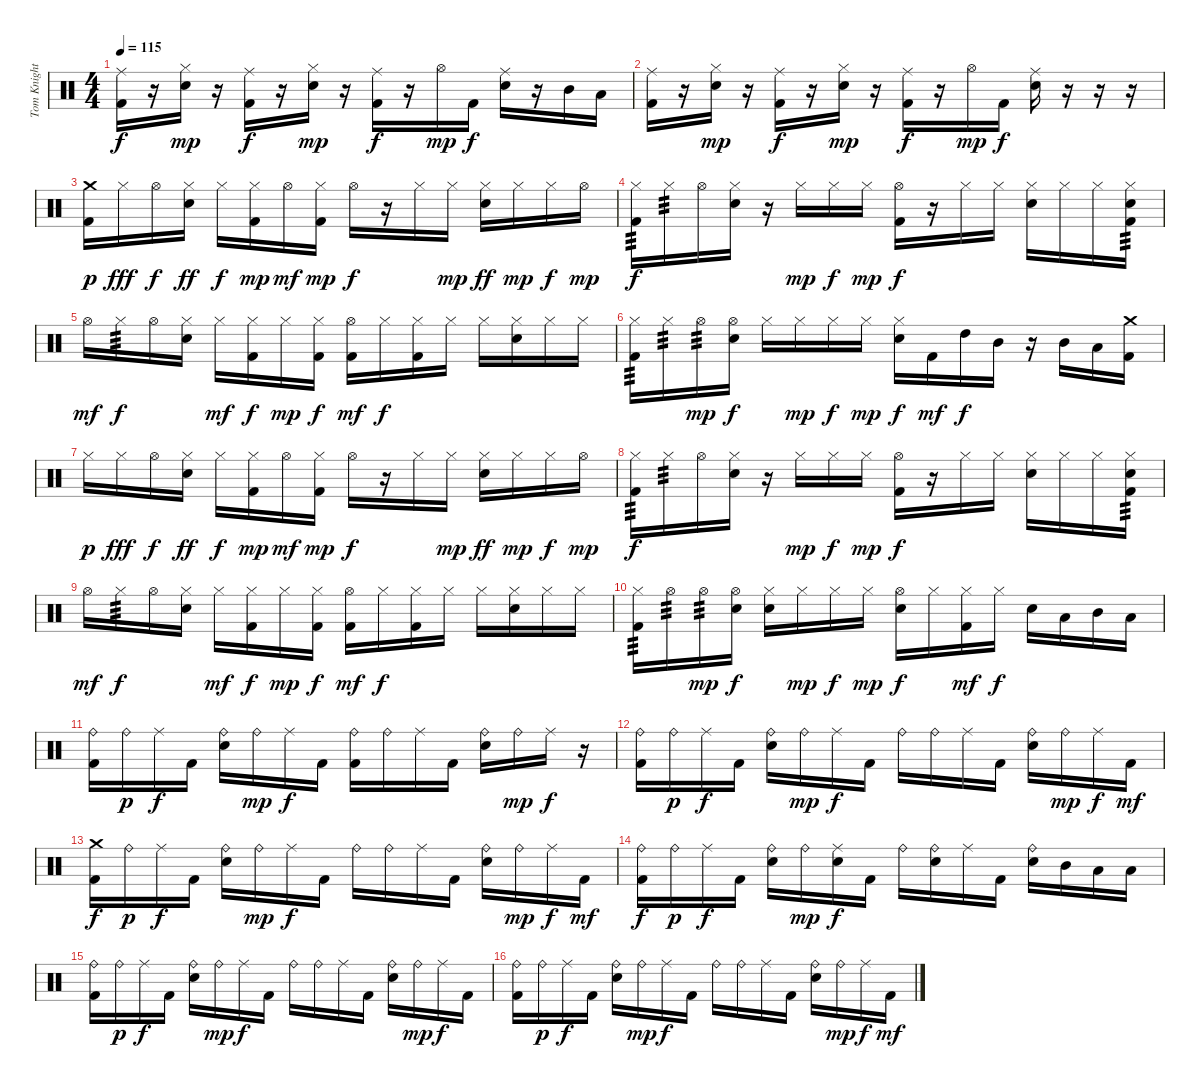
\track ("Tom Knight" "Tom Knight") {instrument percussion}
\staff {score}
\articulation defaults
\ts (4 4)
\section ("" "")
\tempo 115
\clef neutral
\ks c
("Ride (middle)" "Kick (hit) 2").16{dy f} r.16 ("Hi-Hat (closed)" "Electric Snare (hit)").16{dy mp} r.16 ("Ride (middle)" "Kick (hit) 2").16{dy f} r.16 ("Hi-Hat (closed)" "Electric Snare (hit)").16{dy mp} r.16 ("Ride (middle)" "Kick (hit) 2").16{dy f} r.16 "Hi-Hat (open)".16{dy mp} "Kick (hit) 2".16{dy f} ("Ride (middle)" "Electric Snare (hit)").16 r.16 "Mid Tom (hit)".16 "Low Tom (hit)".16 |
("Ride (middle)" "Kick (hit) 2").16 r.16 ("Hi-Hat (closed)" "Electric Snare (hit)").16{dy mp} r.16 ("Ride (middle)" "Kick (hit) 2").16{dy f} r.16 ("Hi-Hat (closed)" "Electric Snare (hit)").16{dy mp} r.16 ("Ride (middle)" "Kick (hit) 2").16{dy f} r.16 "Hi-Hat (open)".16{dy mp} "Kick (hit) 2".16{dy f} ("Ride (middle)" "Electric Snare (hit)").16 r.16 r.16 r.16 |
\section ("" "")
("Crash medium (hit)" "Kick (hit) 2").16{dy p} "Hi-Hat (closed)".16{dy fff} "Hi-Hat (open)".16{dy f} ("Hi-Hat (closed)" "Electric Snare (hit)").16{dy ff} "Hi-Hat (closed)".16{dy f} ("Hi-Hat (closed)" "Kick (hit) 2").16{dy mp} "Hi-Hat (open)".16{dy mf} ("Hi-Hat (closed)" "Kick (hit) 2").16{dy mp} "Hi-Hat (open)".16{dy f} r.16 "Hi-Hat (closed)".16 "Hi-Hat (closed)".16{dy mp} ("Hi-Hat (closed)" "Electric Snare (hit)").16{dy ff} "Hi-Hat (closed)".16{dy mp} "Hi-Hat (closed)".16{dy f} "Hi-Hat (open)".16{dy mp} |
("Hi-Hat (closed)" "Kick (hit) 2").16{tp 3 dy f} "Hi-Hat (closed)".16{tp 3} "Hi-Hat (open)".16 ("Hi-Hat (closed)" "Electric Snare (hit)").16 r.16 "Hi-Hat (closed)".16{dy mp} "Hi-Hat (closed)".16{dy f} "Hi-Hat (closed)".16{dy mp} ("Hi-Hat (open)" "Kick (hit) 2").16{dy f} r.16 "Hi-Hat (closed)".16 "Hi-Hat (closed)".16 ("Hi-Hat (closed)" "Electric Snare (hit)").16 "Hi-Hat (closed)".16 "Hi-Hat (closed)".16 ("Hi-Hat (closed)" "Electric Snare (hit)" "Kick (hit) 2").16{tp 3} |
"Hi-Hat (open)".16{dy mf} "Hi-Hat (closed)".16{tp 3 dy f} "Hi-Hat (open)".16 ("Hi-Hat (closed)" "Electric Snare (hit)").16 "Hi-Hat (closed)".16{dy mf} ("Hi-Hat (closed)" "Kick (hit) 2").16{dy f} "Hi-Hat (closed)".16{dy mp} ("Hi-Hat (closed)" "Kick (hit) 2").16{dy f} ("Hi-Hat (open)" "Kick (hit) 2").16{dy mf} "Hi-Hat (closed)".16{dy f} ("Hi-Hat (closed)" "Kick (hit) 2").16 "Hi-Hat (closed)".16 "Hi-Hat (closed)".16 ("Hi-Hat (closed)" "Electric Snare (hit)").16 "Hi-Hat (closed)".16 "Hi-Hat (closed)".16 |
("Hi-Hat (closed)" "Kick (hit) 2").16{tp 3} "Hi-Hat (closed)".16{tp 3} "Hi-Hat (open)".16{tp 3 dy mp} ("Hi-Hat (open)" "Electric Snare (hit)").16{dy f} "Hi-Hat (closed)".16 "Hi-Hat (closed)".16{dy mp} "Hi-Hat (closed)".16{dy f} "Hi-Hat (closed)".16{dy mp} ("Hi-Hat (closed)" "Electric Snare (hit)").16{dy f} "Kick (hit) 2".16{dy mf} "High Tom (hit)".16{dy f} "Mid Tom (hit)".16 r.16 "Mid Tom (hit)".16 "Low Tom (hit)".16 ("Crash medium (hit)" "Kick (hit) 2").16 |
"Hi-Hat (closed)".16{dy p} "Hi-Hat (closed)".16{dy fff} "Hi-Hat (open)".16{dy f} ("Hi-Hat (closed)" "Electric Snare (hit)").16{dy ff} "Hi-Hat (closed)".16{dy f} ("Hi-Hat (closed)" "Kick (hit) 2").16{dy mp} "Hi-Hat (open)".16{dy mf} ("Hi-Hat (closed)" "Kick (hit) 2").16{dy mp} "Hi-Hat (open)".16{dy f} r.16 "Hi-Hat (closed)".16 "Hi-Hat (closed)".16{dy mp} ("Hi-Hat (closed)" "Electric Snare (hit)").16{dy ff} "Hi-Hat (closed)".16{dy mp} "Hi-Hat (closed)".16{dy f} "Hi-Hat (open)".16{dy mp} |
("Hi-Hat (closed)" "Kick (hit) 2").16{tp 3 dy f} "Hi-Hat (closed)".16{tp 3} "Hi-Hat (open)".16 ("Hi-Hat (closed)" "Electric Snare (hit)").16 r.16 "Hi-Hat (closed)".16{dy mp} "Hi-Hat (closed)".16{dy f} "Hi-Hat (closed)".16{dy mp} ("Hi-Hat (open)" "Kick (hit) 2").16{dy f} r.16 "Hi-Hat (closed)".16 "Hi-Hat (closed)".16 ("Hi-Hat (closed)" "Electric Snare (hit)").16 "Hi-Hat (closed)".16 "Hi-Hat (closed)".16 ("Hi-Hat (closed)" "Electric Snare (hit)" "Kick (hit) 2").16{tp 3} |
"Hi-Hat (open)".16{dy mf} "Hi-Hat (closed)".16{tp 3 dy f} "Hi-Hat (open)".16 ("Hi-Hat (closed)" "Electric Snare (hit)").16 "Hi-Hat (closed)".16{dy mf} ("Hi-Hat (closed)" "Kick (hit) 2").16{dy f} "Hi-Hat (closed)".16{dy mp} ("Hi-Hat (closed)" "Kick (hit) 2").16{dy f} ("Hi-Hat (open)" "Kick (hit) 2").16{dy mf} "Hi-Hat (closed)".16{dy f} ("Hi-Hat (closed)" "Kick (hit) 2").16 "Hi-Hat (closed)".16 "Hi-Hat (closed)".16 ("Hi-Hat (closed)" "Electric Snare (hit)").16 "Hi-Hat (closed)".16 "Hi-Hat (closed)".16 |
("Hi-Hat (closed)" "Kick (hit) 2").16{tp 3} "Hi-Hat (open)".16{tp 3} "Hi-Hat (open)".16{tp 3 dy mp} ("Hi-Hat (open)" "Electric Snare (hit)").16{dy f} ("Hi-Hat (closed)" "Electric Snare (hit)").16 "Hi-Hat (closed)".16{dy mp} "Hi-Hat (closed)".16{dy f} "Hi-Hat (closed)".16{dy mp} ("Hi-Hat (open)" "Electric Snare (hit)").16{dy f} "Hi-Hat (closed)".16 ("Hi-Hat (closed)" "Kick (hit) 2").16{dy mf} "Hi-Hat (closed)".16{dy f} "Electric Snare (hit)".16 "Low Tom (hit)".16 "Mid Tom (hit)".16 "Low Tom (hit)".16 |
\section ("" "")
("Ride (bell)" "Kick (hit) 2").16 "Ride (bell)".16{dy p} "Ride (middle)".16{dy f} "Kick (hit) 2".16 ("Ride (bell)" "Electric Snare (hit)").16 "Ride (bell)".16{dy mp} "Ride (middle)".16{dy f} "Kick (hit) 2".16 ("Ride (bell)" "Kick (hit) 2").16 "Ride (bell)".16 "Ride (middle)".16 "Kick (hit) 2".16 ("Ride (bell)" "Electric Snare (hit)").16 "Ride (bell)".16{dy mp} "Ride (middle)".16{dy f} r.16 |
("Ride (bell)" "Kick (hit) 2").16 "Ride (bell)".16{dy p} "Ride (middle)".16{dy f} "Kick (hit) 2".16 ("Ride (bell)" "Electric Snare (hit)").16 "Ride (bell)".16{dy mp} "Ride (middle)".16{dy f} "Kick (hit) 2".16 "Ride (bell)".16 "Ride (bell)".16 "Ride (middle)".16 "Kick (hit) 2".16 ("Ride (bell)" "Electric Snare (hit)").16 "Ride (bell)".16{dy mp} "Ride (middle)".16{dy f} "Kick (hit) 2".16{dy mf} |
("Crash medium (hit)" "Kick (hit) 2").16{dy f} "Ride (bell)".16{dy p} "Ride (middle)".16{dy f} "Kick (hit) 2".16 ("Ride (bell)" "Electric Snare (hit)").16 "Ride (bell)".16{dy mp} "Ride (middle)".16{dy f} "Kick (hit) 2".16 "Ride (bell)".16 "Ride (bell)".16 "Ride (middle)".16 "Kick (hit) 2".16 ("Ride (bell)" "Electric Snare (hit)").16 "Ride (bell)".16{dy mp} "Ride (middle)".16{dy f} "Kick (hit) 2".16{dy mf} |
("Ride (bell)" "Kick (hit) 2").16{dy f} "Ride (bell)".16{dy p} "Ride (middle)".16{dy f} "Kick (hit) 2".16 ("Ride (bell)" "Electric Snare (hit)").16 "Ride (bell)".16{dy mp} ("Ride (middle)" "Electric Snare (hit)").16{dy f} "Kick (hit) 2".16 "Ride (bell)".16 ("Ride (bell)" "Electric Snare (hit)").16 "Ride (middle)".16 "Kick (hit) 2".16 ("Ride (bell)" "Electric Snare (hit)").16 "Mid Tom (hit)".16 "Low Tom (hit)".16 "Low Floor Tom (hit)".16 |
("Ride (bell)" "Kick (hit) 2").16 "Ride (bell)".16{dy p} "Ride (middle)".16{dy f} "Kick (hit) 2".16 ("Ride (bell)" "Electric Snare (hit)").16 "Ride (bell)".16{dy mp} "Ride (middle)".16{dy f} "Kick (hit) 2".16 "Ride (bell)".16 "Ride (bell)".16 "Ride (middle)".16 "Kick (hit) 2".16 ("Ride (bell)" "Electric Snare (hit)").16 "Ride (bell)".16{dy mp} "Ride (middle)".16{dy f} "Kick (hit) 2".16 |
("Ride (bell)" "Kick (hit) 2").16 "Ride (bell)".16{dy p} "Ride (middle)".16{dy f} "Kick (hit) 2".16 ("Ride (bell)" "Electric Snare (hit)").16 "Ride (bell)".16{dy mp} "Ride (middle)".16{dy f} "Kick (hit) 2".16 "Ride (bell)".16 "Ride (bell)".16 "Ride (middle)".16 "Kick (hit) 2".16 ("Ride (bell)" "Electric Snare (hit)").16 "Ride (bell)".16{dy mp} "Ride (middle)".16{dy f} "Kick (hit) 2".16{dy mf}
